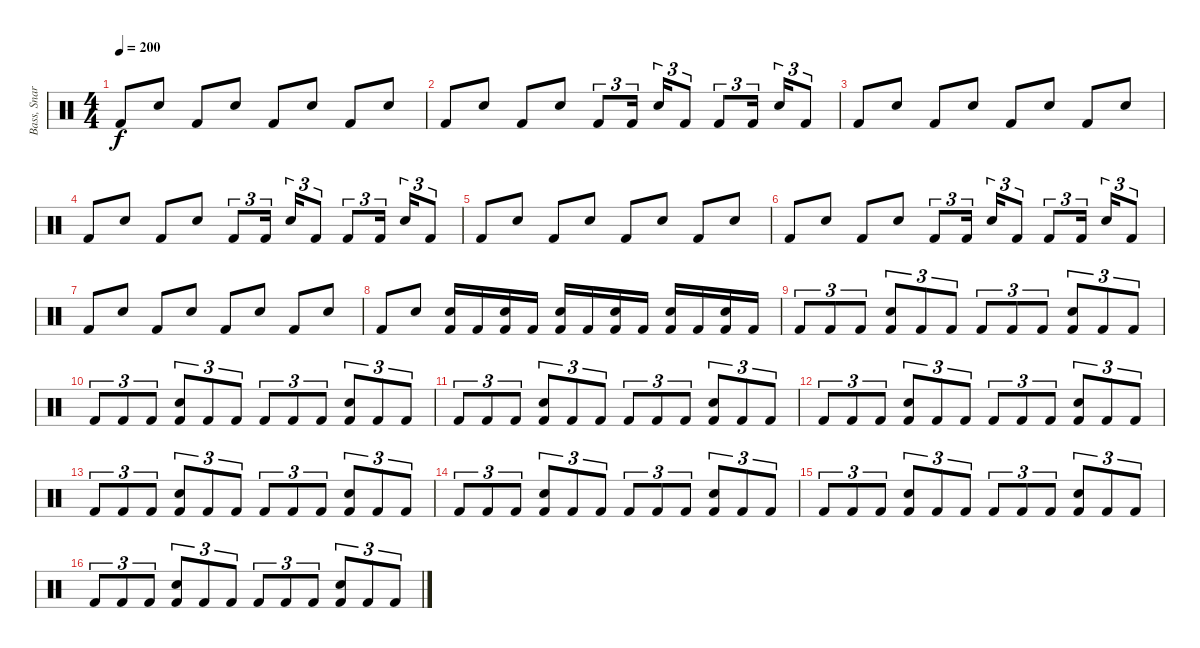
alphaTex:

\track ("Bass, Snare & Toms" "Bass, Snar") {instrument percussion}
\staff {score}
\articulation defaults
\ts (4 4)
\tempo 200
\clef neutral
\ks c "Kick (hit) 2".8{dy f} "Electric Snare (hit)".8 "Kick (hit) 2".8 "Electric Snare (hit)".8 "Kick (hit) 2".8 "Electric Snare (hit)".8 "Kick (hit) 2".8 "Electric Snare (hit)".8
|
"Kick (hit) 2".8 "Electric Snare (hit)".8 "Kick (hit) 2".8 "Electric Snare (hit)".8 "Kick (hit) 2".8{tu (3 2)} "Kick (hit) 2".16{tu (3 2)} "Electric Snare (hit)".16{tu (3 2)} "Kick (hit) 2".8{tu (3 2)} "Kick (hit) 2".8{tu (3 2)} "Kick (hit) 2".16{tu (3 2)} "Electric Snare (hit)".16{tu (3 2)} "Kick (hit) 2".8{tu (3 2)} |
"Kick (hit) 2".8 "Electric Snare (hit)".8 "Kick (hit) 2".8 "Electric Snare (hit)".8 "Kick (hit) 2".8 "Electric Snare (hit)".8 "Kick (hit) 2".8 "Electric Snare (hit)".8 |
"Kick (hit) 2".8 "Electric Snare (hit)".8 "Kick (hit) 2".8 "Electric Snare (hit)".8 "Kick (hit) 2".8{tu (3 2)} "Kick (hit) 2".16{tu (3 2)} "Electric Snare (hit)".16{tu (3 2)} "Kick (hit) 2".8{tu (3 2)} "Kick (hit) 2".8{tu (3 2)} "Kick (hit) 2".16{tu (3 2)} "Electric Snare (hit)".16{tu (3 2)} "Kick (hit) 2".8{tu (3 2)} |
"Kick (hit) 2".8 "Electric Snare (hit)".8 "Kick (hit) 2".8 "Electric Snare (hit)".8 "Kick (hit) 2".8 "Electric Snare (hit)".8 "Kick (hit) 2".8 "Electric Snare (hit)".8 |
"Kick (hit) 2".8 "Electric Snare (hit)".8 "Kick (hit) 2".8 "Electric Snare (hit)".8 "Kick (hit) 2".8{tu (3 2)} "Kick (hit) 2".16{tu (3 2)} "Electric Snare (hit)".16{tu (3 2)} "Kick (hit) 2".8{tu (3 2)} "Kick (hit) 2".8{tu (3 2)} "Kick (hit) 2".16{tu (3 2)} "Electric Snare (hit)".16{tu (3 2)} "Kick (hit) 2".8{tu (3 2)} |
"Kick (hit) 2".8 "Electric Snare (hit)".8 "Kick (hit) 2".8 "Electric Snare (hit)".8 "Kick (hit) 2".8 "Electric Snare (hit)".8 "Kick (hit) 2".8 "Electric Snare (hit)".8 |
"Kick (hit) 2".8 "Electric Snare (hit)".8 ("Electric Snare (hit)" "Kick (hit) 2").16 "Kick (hit) 2".16 ("Electric Snare (hit)" "Kick (hit) 2").16 "Kick (hit) 2".16 ("Electric Snare (hit)" "Kick (hit) 2").16 "Kick (hit) 2".16 ("Electric Snare (hit)" "Kick (hit) 2").16 "Kick (hit) 2".16 ("Electric Snare (hit)" "Kick (hit) 2").16 "Kick (hit) 2".16 ("Electric Snare (hit)" "Kick (hit) 2").16 "Kick (hit) 2".16 |
"Kick (hit) 2".8{tu (3 2)} "Kick (hit) 2".8{tu (3 2)} "Kick (hit) 2".8{tu (3 2)} ("Electric Snare (hit)" "Kick (hit) 2").8{tu (3 2)} "Kick (hit) 2".8{tu (3 2)} "Kick (hit) 2".8{tu (3 2)} "Kick (hit) 2".8{tu (3 2)} "Kick (hit) 2".8{tu (3 2)} "Kick (hit) 2".8{tu (3 2)} ("Electric Snare (hit)" "Kick (hit) 2").8{tu (3 2)} "Kick (hit) 2".8{tu (3 2)} "Kick (hit) 2".8{tu (3 2)} |
"Kick (hit) 2".8{tu (3 2)} "Kick (hit) 2".8{tu (3 2)} "Kick (hit) 2".8{tu (3 2)} ("Electric Snare (hit)" "Kick (hit) 2").8{tu (3 2)} "Kick (hit) 2".8{tu (3 2)} "Kick (hit) 2".8{tu (3 2)} "Kick (hit) 2".8{tu (3 2)} "Kick (hit) 2".8{tu (3 2)} "Kick (hit) 2".8{tu (3 2)} ("Electric Snare (hit)" "Kick (hit) 2").8{tu (3 2)} "Kick (hit) 2".8{tu (3 2)} "Kick (hit) 2".8{tu (3 2)} |
"Kick (hit) 2".8{tu (3 2)} "Kick (hit) 2".8{tu (3 2)} "Kick (hit) 2".8{tu (3 2)} ("Electric Snare (hit)" "Kick (hit) 2").8{tu (3 2)} "Kick (hit) 2".8{tu (3 2)} "Kick (hit) 2".8{tu (3 2)} "Kick (hit) 2".8{tu (3 2)} "Kick (hit) 2".8{tu (3 2)} "Kick (hit) 2".8{tu (3 2)} ("Electric Snare (hit)" "Kick (hit) 2").8{tu (3 2)} "Kick (hit) 2".8{tu (3 2)} "Kick (hit) 2".8{tu (3 2)} |
"Kick (hit) 2".8{tu (3 2)} "Kick (hit) 2".8{tu (3 2)} "Kick (hit) 2".8{tu (3 2)} ("Electric Snare (hit)" "Kick (hit) 2").8{tu (3 2)} "Kick (hit) 2".8{tu (3 2)} "Kick (hit) 2".8{tu (3 2)} "Kick (hit) 2".8{tu (3 2)} "Kick (hit) 2".8{tu (3 2)} "Kick (hit) 2".8{tu (3 2)} ("Electric Snare (hit)" "Kick (hit) 2").8{tu (3 2)} "Kick (hit) 2".8{tu (3 2)} "Kick (hit) 2".8{tu (3 2)} |
"Kick (hit) 2".8{tu (3 2)} "Kick (hit) 2".8{tu (3 2)} "Kick (hit) 2".8{tu (3 2)} ("Electric Snare (hit)" "Kick (hit) 2").8{tu (3 2)} "Kick (hit) 2".8{tu (3 2)} "Kick (hit) 2".8{tu (3 2)} "Kick (hit) 2".8{tu (3 2)} "Kick (hit) 2".8{tu (3 2)} "Kick (hit) 2".8{tu (3 2)} ("Electric Snare (hit)" "Kick (hit) 2").8{tu (3 2)} "Kick (hit) 2".8{tu (3 2)} "Kick (hit) 2".8{tu (3 2)} |
"Kick (hit) 2".8{tu (3 2)} "Kick (hit) 2".8{tu (3 2)} "Kick (hit) 2".8{tu (3 2)} ("Electric Snare (hit)" "Kick (hit) 2").8{tu (3 2)} "Kick (hit) 2".8{tu (3 2)} "Kick (hit) 2".8{tu (3 2)} "Kick (hit) 2".8{tu (3 2)} "Kick (hit) 2".8{tu (3 2)} "Kick (hit) 2".8{tu (3 2)} ("Electric Snare (hit)" "Kick (hit) 2").8{tu (3 2)} "Kick (hit) 2".8{tu (3 2)} "Kick (hit) 2".8{tu (3 2)} |
"Kick (hit) 2".8{tu (3 2)} "Kick (hit) 2".8{tu (3 2)} "Kick (hit) 2".8{tu (3 2)} ("Electric Snare (hit)" "Kick (hit) 2").8{tu (3 2)} "Kick (hit) 2".8{tu (3 2)} "Kick (hit) 2".8{tu (3 2)} "Kick (hit) 2".8{tu (3 2)} "Kick (hit) 2".8{tu (3 2)} "Kick (hit) 2".8{tu (3 2)} ("Electric Snare (hit)" "Kick (hit) 2").8{tu (3 2)} "Kick (hit) 2".8{tu (3 2)} "Kick (hit) 2".8{tu (3 2)} |
"Kick (hit) 2".8{tu (3 2)} "Kick (hit) 2".8{tu (3 2)} "Kick (hit) 2".8{tu (3 2)} ("Electric Snare (hit)" "Kick (hit) 2").8{tu (3 2)} "Kick (hit) 2".8{tu (3 2)} "Kick (hit) 2".8{tu (3 2)} "Kick (hit) 2".8{tu (3 2)} "Kick (hit) 2".8{tu (3 2)} "Kick (hit) 2".8{tu (3 2)} ("Electric Snare (hit)" "Kick (hit) 2").8{tu (3 2)} "Kick (hit) 2".8{tu (3 2)} "Kick (hit) 2".8{tu (3 2)}
